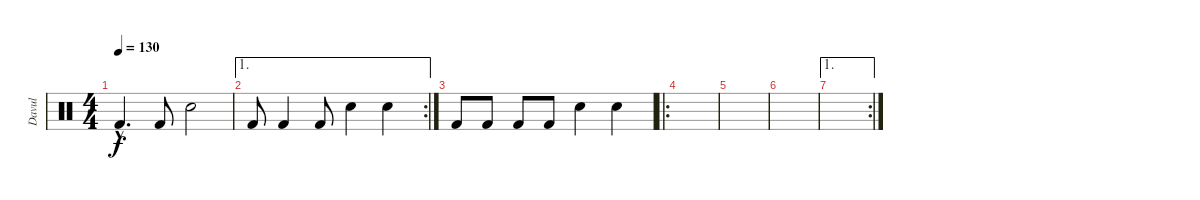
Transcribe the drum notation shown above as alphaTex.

\track ("Davul" "Davul") {instrument percussion}
\staff {score}
\articulation defaults
\ts (4 4)
\tempo 130
\clef neutral
\ks c "Kick (hit) 2"{hac}.4{d dy f} "Kick (hit) 2".8 "Electric Snare (hit)".2
|
\ae 1
\rc 2 "Kick (hit) 2".8 "Kick (hit) 2".4 "Kick (hit) 2".8 "Electric Snare (hit)".4 "Electric Snare (hit)".4
|
"Kick (hit) 2".8 "Kick (hit) 2".8 "Kick (hit) 2".8 "Kick (hit) 2".8 "Electric Snare (hit)".4 "Electric Snare (hit)".4 |
\ro
|
|
|
\ae 1
\rc 2
